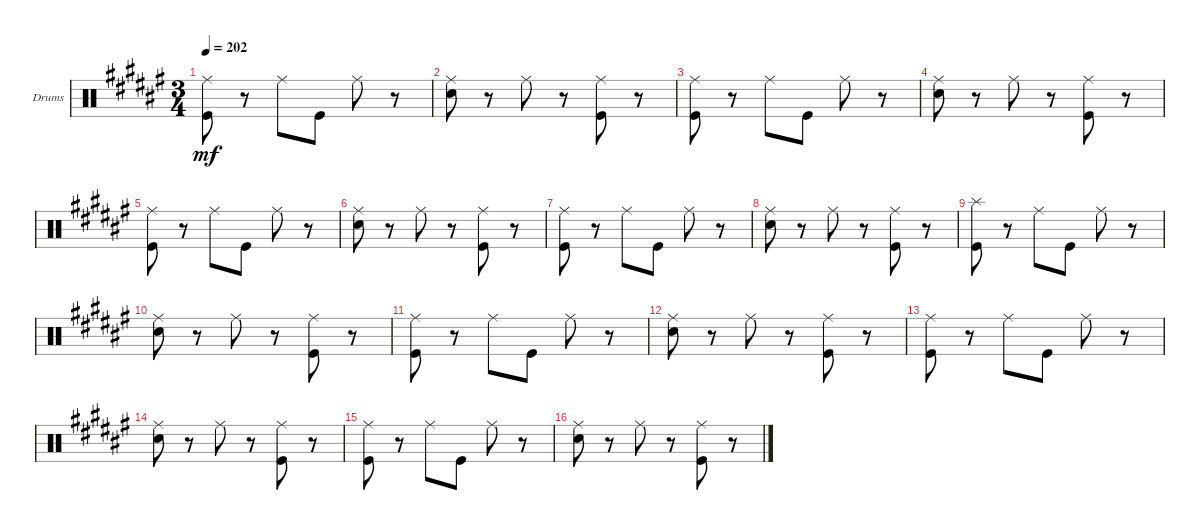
\defaultSystemsLayout 4
\bracketExtendMode groupsimilarinstruments
\firstSystemTrackNameOrientation horizontal
\otherSystemsTrackNameOrientation horizontal
\track ("Drumkit" "Drums") {instrument percussion}
\staff {score}
\articulation defaults
\ts (3 4)
\tempo 202
\clef neutral
\ks f#
("Kick (hit)" "Ride (middle)").8{dy mf} r.8 "Ride (middle)".8 "Kick (hit)".8 "Ride (middle)".8 r.8 |
("Snare (hit) 2" "Ride (middle)").8 r.8 "Ride (middle)".8 r.8 ("Kick (hit)" "Ride (middle)").8 r.8 |
("Kick (hit)" "Ride (middle)").8 r.8 "Ride (middle)".8 "Kick (hit)".8 "Ride (middle)".8 r.8 |
("Snare (hit) 2" "Ride (middle)").8 r.8 "Ride (middle)".8 r.8 ("Kick (hit)" "Ride (middle)").8 r.8 |
("Kick (hit)" "Ride (middle)").8 r.8 "Ride (middle)".8 "Kick (hit)".8 "Ride (middle)".8 r.8 |
("Snare (hit) 2" "Ride (middle)").8 r.8 "Ride (middle)".8 r.8 ("Kick (hit)" "Ride (middle)").8 r.8 |
("Kick (hit)" "Ride (middle)").8 r.8 "Ride (middle)".8 "Kick (hit)".8 "Ride (middle)".8 r.8 |
("Snare (hit) 2" "Ride (middle)").8 r.8 "Ride (middle)".8 r.8 ("Kick (hit)" "Ride (middle)").8 r.8 |
("Kick (hit)" "Splash (hit)").8 r.8 "Ride (middle)".8 "Kick (hit)".8 "Ride (middle)".8 r.8 |
("Snare (hit) 2" "Ride (middle)").8 r.8 "Ride (middle)".8 r.8 ("Kick (hit)" "Ride (middle)").8 r.8 |
("Kick (hit)" "Ride (middle)").8 r.8 "Ride (middle)".8 "Kick (hit)".8 "Ride (middle)".8 r.8 |
("Snare (hit) 2" "Ride (middle)").8 r.8 "Ride (middle)".8 r.8 ("Kick (hit)" "Ride (middle)").8 r.8 |
("Kick (hit)" "Ride (middle)").8 r.8 "Ride (middle)".8 "Kick (hit)".8 "Ride (middle)".8 r.8 |
("Snare (hit) 2" "Ride (middle)").8 r.8 "Ride (middle)".8 r.8 ("Kick (hit)" "Ride (middle)").8 r.8 |
("Kick (hit)" "Ride (middle)").8 r.8 "Ride (middle)".8 "Kick (hit)".8 "Ride (middle)".8 r.8 |
("Snare (hit) 2" "Ride (middle)").8 r.8 "Ride (middle)".8 r.8 ("Kick (hit)" "Ride (middle)").8 r.8
